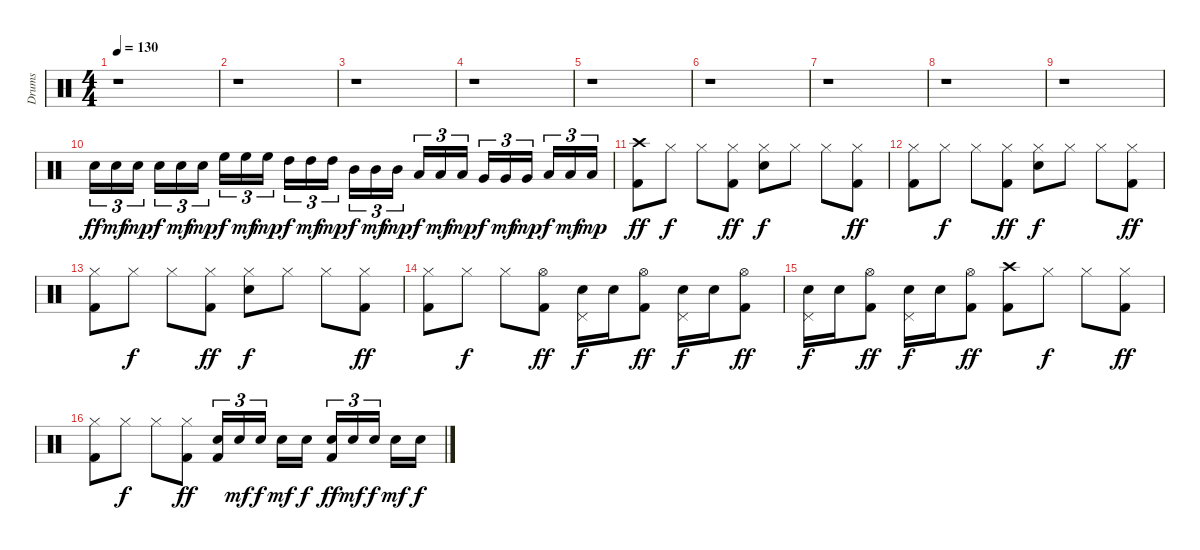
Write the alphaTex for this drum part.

\track ("Drums" "Drums") {instrument percussion}
\staff {score}
\articulation defaults
\ts (4 4)
\tempo 130
\clef neutral
\ks c
r.1{dy ff} |
r.1 |
r.1 |
r.1 |
r.1 |
r.1 |
r.1 |
r.1 |
r.1 |
"Snare (hit) 2".16{tu (3 2)} "Snare (hit) 2".16{tu (3 2) dy mf} "Snare (hit) 2".16{tu (3 2) dy mp} "Snare (hit) 2".16{tu (3 2) dy f} "Snare (hit) 2".16{tu (3 2) dy mf} "Snare (hit) 2".16{tu (3 2) dy mp} "High Floor Tom (hit)".16{tu (3 2) dy f} "High Floor Tom (hit)".16{tu (3 2) dy mf} "High Floor Tom (hit)".16{tu (3 2) dy mp} "High Tom (hit)".16{tu (3 2) dy f} "High Tom (hit)".16{tu (3 2) dy mf} "High Tom (hit)".16{tu (3 2) dy mp} "Mid Tom (hit)".16{tu (3 2) dy f} "Mid Tom (hit)".16{tu (3 2) dy mf} "Mid Tom (hit)".16{tu (3 2) dy mp} "Low Tom (hit)".16{tu (3 2) dy f} "Low Tom (hit)".16{tu (3 2) dy mf} "Low Tom (hit)".16{tu (3 2) dy mp} "Very Low Tom (hit)".16{tu (3 2) dy f} "Very Low Tom (hit)".16{tu (3 2) dy mf} "Very Low Tom (hit)".16{tu (3 2) dy mp} "Low Floor Tom (hit)".16{tu (3 2) dy f} "Low Floor Tom (hit)".16{tu (3 2) dy mf} "Low Floor Tom (hit)".16{tu (3 2) dy mp} |
("Crash high (hit)" "Kick (hit) 2").8{dy ff} "Hi-Hat (closed)".8{dy f} "Hi-Hat (closed)".8 ("Hi-Hat (closed)" "Kick (hit) 2").8{dy ff} ("Hi-Hat (closed)" "Snare (hit) 2").8{dy f} "Hi-Hat (closed)".8 "Hi-Hat (closed)".8 ("Hi-Hat (closed)" "Kick (hit) 2").8{dy ff} |
("Hi-Hat (closed)" "Kick (hit) 2").8 "Hi-Hat (closed)".8{dy f} "Hi-Hat (closed)".8 ("Hi-Hat (closed)" "Kick (hit) 2").8{dy ff} ("Hi-Hat (closed)" "Snare (hit) 2").8{dy f} "Hi-Hat (closed)".8 "Hi-Hat (closed)".8 ("Hi-Hat (closed)" "Kick (hit) 2").8{dy ff} |
("Hi-Hat (closed)" "Kick (hit) 2").8 "Hi-Hat (closed)".8{dy f} "Hi-Hat (closed)".8 ("Hi-Hat (closed)" "Kick (hit) 2").8{dy ff} ("Hi-Hat (closed)" "Snare (hit) 2").8{dy f} "Hi-Hat (closed)".8 "Hi-Hat (closed)".8 ("Hi-Hat (closed)" "Kick (hit) 2").8{dy ff} |
("Hi-Hat (closed)" "Kick (hit) 2").8 "Hi-Hat (closed)".8{dy f} "Hi-Hat (closed)".8 ("Hi-Hat (open)" "Kick (hit) 2").8{dy ff} ("Pedal Hi-Hat (hit)" "Snare (hit) 2").16{dy f} "Snare (hit) 2".16 ("Hi-Hat (open)" "Kick (hit) 2").8{dy ff} ("Pedal Hi-Hat (hit)" "Snare (hit) 2").16{dy f} "Snare (hit) 2".16 ("Hi-Hat (open)" "Kick (hit) 2").8{dy ff} |
("Pedal Hi-Hat (hit)" "Snare (hit) 2").16{dy f} "Snare (hit) 2".16 ("Hi-Hat (open)" "Kick (hit) 2").8{dy ff} ("Pedal Hi-Hat (hit)" "Snare (hit) 2").16{dy f} "Snare (hit) 2".16 ("Hi-Hat (open)" "Kick (hit) 2").8{dy ff} ("Crash high (hit)" "Kick (hit) 2").8 "Hi-Hat (closed)".8{dy f} "Hi-Hat (closed)".8 ("Hi-Hat (closed)" "Kick (hit) 2").8{dy ff} |
("Hi-Hat (closed)" "Kick (hit) 2").8 "Hi-Hat (closed)".8{dy f} "Hi-Hat (closed)".8 ("Hi-Hat (closed)" "Kick (hit) 2").8{dy ff} ("Snare (hit) 2" "Kick (hit) 2").16{tu (3 2)} "Snare (hit) 2".16{tu (3 2) dy mf} "Snare (hit) 2".16{tu (3 2) dy f} "Snare (hit) 2".16{dy mf} "Snare (hit) 2".16{dy f} ("Snare (hit) 2" "Kick (hit) 2").16{tu (3 2) dy ff} "Snare (hit) 2".16{tu (3 2) dy mf} "Snare (hit) 2".16{tu (3 2) dy f} "Snare (hit) 2".16{dy mf} "Snare (hit) 2".16{dy f}
